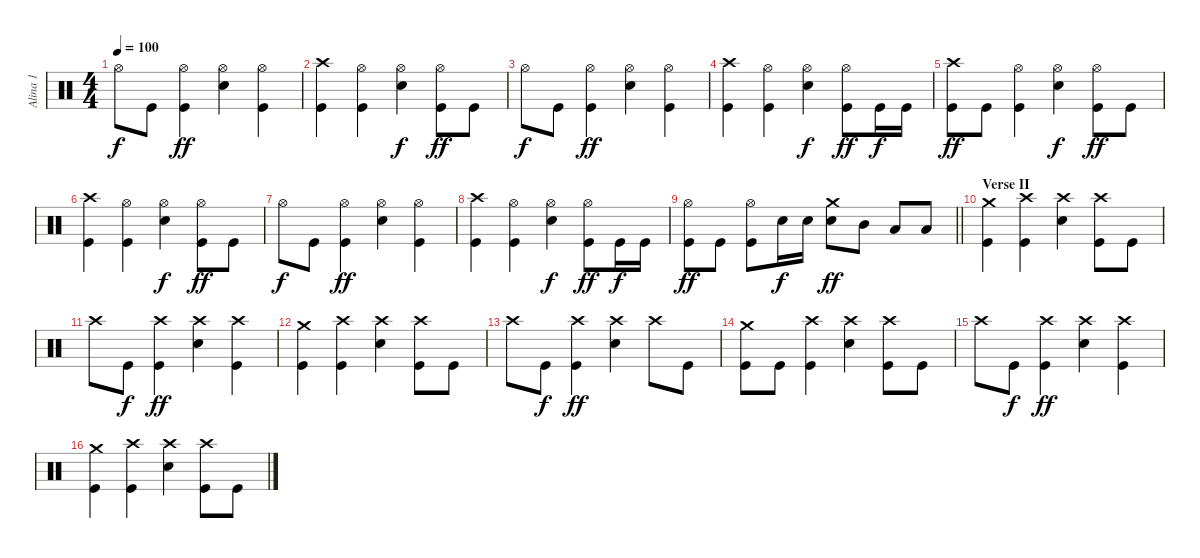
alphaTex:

\track ("Alina 1" "Alina 1") {mute instrument percussion}
\staff {score}
\articulation defaults
\ts (4 4)
\tempo 100
\clef neutral
\ks c "Hi-Hat (open)".8{dy f} "Kick (hit)".8
("Hi-Hat (open)" "Kick (hit)").4{dy ff} ("Hi-Hat (open)" "Snare (hit) 2").4 ("Hi-Hat (open)" "Kick (hit)").4 |
("Crash high (hit)" "Kick (hit)").4 ("Hi-Hat (open)" "Kick (hit)").4 ("Snare (hit) 2" "Hi-Hat (open)").4{dy f} ("Hi-Hat (open)" "Kick (hit)").8{dy ff} "Kick (hit)".8 |
"Hi-Hat (open)".8{dy f} "Kick (hit)".8 ("Hi-Hat (open)" "Kick (hit)").4{dy ff} ("Hi-Hat (open)" "Snare (hit) 2").4 ("Hi-Hat (open)" "Kick (hit)").4 |
("Crash high (hit)" "Kick (hit)").4 ("Hi-Hat (open)" "Kick (hit)").4 ("Snare (hit) 2" "Hi-Hat (open)").4{dy f} ("Hi-Hat (open)" "Kick (hit)").8{dy ff} "Kick (hit)".16{dy f} "Kick (hit)".16 |
("Crash high (hit)" "Kick (hit)").8{dy ff} "Kick (hit)".8 ("Hi-Hat (open)" "Kick (hit)").4 ("Snare (hit) 2" "Hi-Hat (open)").4{dy f} ("Hi-Hat (open)" "Kick (hit)").8{dy ff} "Kick (hit)".8 |
("Crash high (hit)" "Kick (hit)").4 ("Hi-Hat (open)" "Kick (hit)").4 ("Snare (hit) 2" "Hi-Hat (open)").4{dy f} ("Hi-Hat (open)" "Kick (hit)").8{dy ff} "Kick (hit)".8 |
"Hi-Hat (open)".8{dy f} "Kick (hit)".8 ("Hi-Hat (open)" "Kick (hit)").4{dy ff} ("Hi-Hat (open)" "Snare (hit) 2").4 ("Hi-Hat (open)" "Kick (hit)").4 |
("Crash high (hit)" "Kick (hit)").4 ("Hi-Hat (open)" "Kick (hit)").4 ("Snare (hit) 2" "Hi-Hat (open)").4{dy f} ("Hi-Hat (open)" "Kick (hit)").8{dy ff} "Kick (hit)".16{dy f} "Kick (hit)".16 |
\barLineRight lightlight
("Hi-Hat (open)" "Kick (hit)").8{dy ff} "Kick (hit)".8 ("Hi-Hat (open)" "Kick (hit)").8 "Snare (hit) 2".16{dy f} "Snare (hit) 2".16 ("Snare (hit) 2" "Crash medium (hit)").8{dy ff} "Mid Tom (hit)".8 "Low Tom (hit)".8 "Low Tom (hit)".8 |
\section ("" "Verse II")
("Kick (hit)" "Crash medium (hit)").4 ("Crash high (hit)" "Kick (hit)").4 ("Snare (hit) 2" "Crash high (hit)").4 ("Crash high (hit)" "Kick (hit)").8 "Kick (hit)".8 |
"Crash high (hit)".8 "Kick (hit)".8{dy f} ("Kick (hit)" "Crash high (hit)").4{dy ff} ("Snare (hit) 2" "Crash high (hit)").4 ("Kick (hit)" "Crash high (hit)").4 |
("Kick (hit)" "Crash medium (hit)").4 ("Crash high (hit)" "Kick (hit)").4 ("Snare (hit) 2" "Crash high (hit)").4 ("Crash high (hit)" "Kick (hit)").8 "Kick (hit)".8 |
"Crash high (hit)".8 "Kick (hit)".8{dy f} ("Kick (hit)" "Crash high (hit)").4{dy ff} ("Snare (hit) 2" "Crash high (hit)").4 "Crash high (hit)".8 "Kick (hit)".8 |
("Kick (hit)" "Crash medium (hit)").8 "Kick (hit)".8 ("Crash high (hit)" "Kick (hit)").4 ("Snare (hit) 2" "Crash high (hit)").4 ("Crash high (hit)" "Kick (hit)").8 "Kick (hit)".8 |
"Crash high (hit)".8 "Kick (hit)".8{dy f} ("Kick (hit)" "Crash high (hit)").4{dy ff} ("Snare (hit) 2" "Crash high (hit)").4 ("Kick (hit)" "Crash high (hit)").4 |
("Kick (hit)" "Crash medium (hit)").4 ("Crash high (hit)" "Kick (hit)").4 ("Snare (hit) 2" "Crash high (hit)").4 ("Crash high (hit)" "Kick (hit)").8 "Kick (hit)".8
